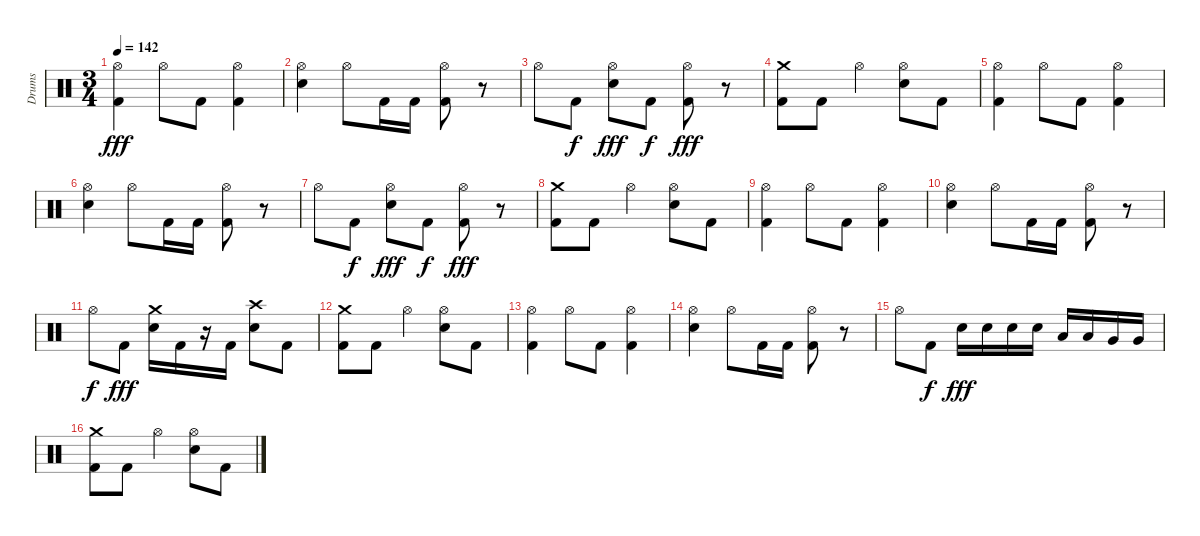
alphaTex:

\track ("Drums" "Drums") {instrument percussion}
\staff {score}
\articulation defaults
\ts (3 4)
\tempo 142
\clef neutral
\ks c
("Hi-Hat (open)" "Kick (hit) 2").4{dy fff} "Hi-Hat (open)".8 "Kick (hit) 2".8 ("Hi-Hat (open)" "Kick (hit) 2").4 |
("Hi-Hat (open)" "Electric Snare (hit)").4 "Hi-Hat (open)".8 "Kick (hit) 2".16 "Kick (hit) 2".16 ("Hi-Hat (open)" "Kick (hit) 2").8 r.8 |
"Hi-Hat (open)".8 "Kick (hit) 2".8{dy f} ("Hi-Hat (open)" "Electric Snare (hit)").8{dy fff} "Kick (hit) 2".8{dy f} ("Hi-Hat (open)" "Kick (hit) 2").8{dy fff} r.8 |
("Crash medium (hit)" "Kick (hit) 2").8 "Kick (hit) 2".8 "Hi-Hat (open)".4 ("Hi-Hat (open)" "Electric Snare (hit)").8 "Kick (hit) 2".8 |
("Hi-Hat (open)" "Kick (hit) 2").4 "Hi-Hat (open)".8 "Kick (hit) 2".8 ("Hi-Hat (open)" "Kick (hit) 2").4 |
("Hi-Hat (open)" "Electric Snare (hit)").4 "Hi-Hat (open)".8 "Kick (hit) 2".16 "Kick (hit) 2".16 ("Hi-Hat (open)" "Kick (hit) 2").8 r.8 |
"Hi-Hat (open)".8 "Kick (hit) 2".8{dy f} ("Hi-Hat (open)" "Electric Snare (hit)").8{dy fff} "Kick (hit) 2".8{dy f} ("Hi-Hat (open)" "Kick (hit) 2").8{dy fff} r.8 |
("Crash medium (hit)" "Kick (hit) 2").8 "Kick (hit) 2".8 "Hi-Hat (open)".4 ("Hi-Hat (open)" "Electric Snare (hit)").8 "Kick (hit) 2".8 |
("Hi-Hat (open)" "Kick (hit) 2").4 "Hi-Hat (open)".8 "Kick (hit) 2".8 ("Hi-Hat (open)" "Kick (hit) 2").4 |
("Hi-Hat (open)" "Electric Snare (hit)").4 "Hi-Hat (open)".8 "Kick (hit) 2".16 "Kick (hit) 2".16 ("Hi-Hat (open)" "Kick (hit) 2").8 r.8 |
"Hi-Hat (open)".8{dy f} "Kick (hit) 2".8{dy fff} ("Crash medium (hit)" "Electric Snare (hit)").16 "Kick (hit) 2".16 r.16 "Kick (hit) 2".16 ("Crash high (hit)" "Electric Snare (hit)").8 "Kick (hit) 2".8 |
("Crash medium (hit)" "Kick (hit) 2").8 "Kick (hit) 2".8 "Hi-Hat (open)".4 ("Hi-Hat (open)" "Electric Snare (hit)").8 "Kick (hit) 2".8 |
("Hi-Hat (open)" "Kick (hit) 2").4 "Hi-Hat (open)".8 "Kick (hit) 2".8 ("Hi-Hat (open)" "Kick (hit) 2").4 |
("Hi-Hat (open)" "Electric Snare (hit)").4 "Hi-Hat (open)".8 "Kick (hit) 2".16 "Kick (hit) 2".16 ("Hi-Hat (open)" "Kick (hit) 2").8 r.8 |
"Hi-Hat (open)".8 "Kick (hit) 2".8{dy f} "Electric Snare (hit)".16{dy fff} "Electric Snare (hit)".16 "Electric Snare (hit)".16 "Electric Snare (hit)".16 "Low Tom (hit)".16 "Low Tom (hit)".16 "Very Low Tom (hit)".16 "Very Low Tom (hit)".16 |
("Crash medium (hit)" "Kick (hit) 2").8 "Kick (hit) 2".8 "Hi-Hat (open)".4 ("Hi-Hat (open)" "Electric Snare (hit)").8 "Kick (hit) 2".8
